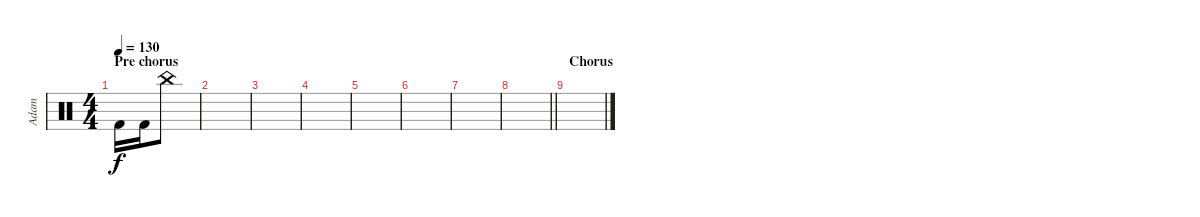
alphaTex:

\track ("Adam" "Adam") {instrument percussion}
\staff {score}
\articulation defaults
\ts (4 4)
\section ("" "Pre chorus")
\tempo 130
\clef neutral
\ks c "Kick (hit) 2".16{dy f} "Kick (hit) 2".16 "China (hit)".8
|
|
|
|
|
|
|
\barLineRight lightlight
|
\section ("" "Chorus")
